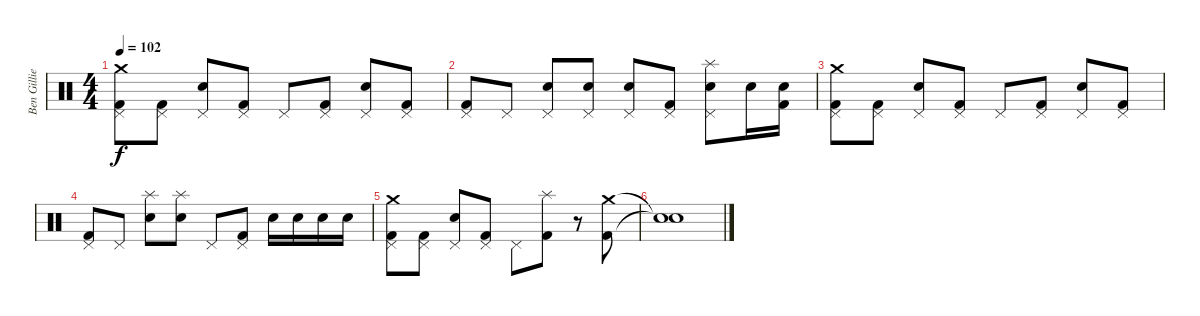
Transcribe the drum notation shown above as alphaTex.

\track ("Ben Gillies" "Ben Gillie") {instrument percussion}
\staff {score}
\articulation defaults
\ts (4 4)
\tempo 102
\clef neutral
\ks c
("Crash medium (hit)" "Pedal Hi-Hat (hit)" "Kick (hit) 2").8{dy f} ("Pedal Hi-Hat (hit)" "Kick (hit) 2").8 ("Pedal Hi-Hat (hit)" "Electric Snare (hit)").8 ("Pedal Hi-Hat (hit)" "Kick (hit) 2").8 "Pedal Hi-Hat (hit)".8 ("Pedal Hi-Hat (hit)" "Kick (hit) 2").8 ("Pedal Hi-Hat (hit)" "Electric Snare (hit)").8 ("Pedal Hi-Hat (hit)" "Kick (hit) 2").8 |
("Pedal Hi-Hat (hit)" "Kick (hit) 2").8 "Pedal Hi-Hat (hit)".8 ("Pedal Hi-Hat (hit)" "Electric Snare (hit)").8 ("Pedal Hi-Hat (hit)" "Electric Snare (hit)").8 ("Pedal Hi-Hat (hit)" "Electric Snare (hit)").8 ("Pedal Hi-Hat (hit)" "Kick (hit) 2").8 ("Splash (hit)" "Pedal Hi-Hat (hit)" "Electric Snare (hit)").8 "Electric Snare (hit)".16 ("Electric Snare (hit)" "Kick (hit) 2").16 |
("Crash medium (hit)" "Pedal Hi-Hat (hit)" "Kick (hit) 2").8 ("Pedal Hi-Hat (hit)" "Kick (hit) 2").8 ("Pedal Hi-Hat (hit)" "Electric Snare (hit)").8 ("Pedal Hi-Hat (hit)" "Kick (hit) 2").8 "Pedal Hi-Hat (hit)".8 ("Pedal Hi-Hat (hit)" "Kick (hit) 2").8 ("Pedal Hi-Hat (hit)" "Electric Snare (hit)").8 ("Pedal Hi-Hat (hit)" "Kick (hit) 2").8 |
("Pedal Hi-Hat (hit)" "Kick (hit) 2").8 "Pedal Hi-Hat (hit)".8 ("Splash (hit)" "Electric Snare (hit)").8 ("Splash (hit)" "Electric Snare (hit)").8 "Pedal Hi-Hat (hit)".8 ("Pedal Hi-Hat (hit)" "Kick (hit) 2").8 "Electric Snare (hit)".16 "Electric Snare (hit)".16 "Electric Snare (hit)".16 "Electric Snare (hit)".16 |
("Crash medium (hit)" "Pedal Hi-Hat (hit)" "Kick (hit) 2").8 ("Pedal Hi-Hat (hit)" "Kick (hit) 2").8 ("Pedal Hi-Hat (hit)" "Electric Snare (hit)").8 ("Pedal Hi-Hat (hit)" "Kick (hit) 2").8 "Pedal Hi-Hat (hit)".8 ("Splash (hit)" "Kick (hit) 2").8 r.8 ("Crash medium (hit)" "Kick (hit) 2").8 |
("Snare (hit)"{t} "Snare (hit)"{t}).1
